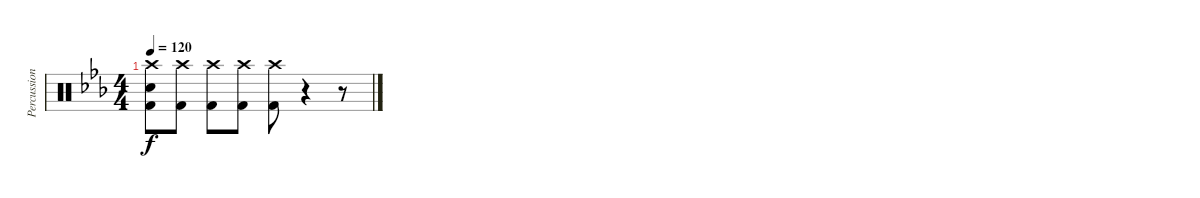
\track ("Percussion" "Percussion") {instrument percussion}
\staff {score}
\articulation defaults
\ts (4 4)
\tempo 120
\clef neutral
\ks eb
("Crash high (hit)" "Electric Snare (hit)" "Kick (hit) 2").8{dy f} ("Crash high (hit)" "Kick (hit) 2").8 ("Crash high (hit)" "Kick (hit) 2").8 ("Crash high (hit)" "Kick (hit) 2").8 ("Crash high (hit)" "Kick (hit) 2").8 r.4 r.8
